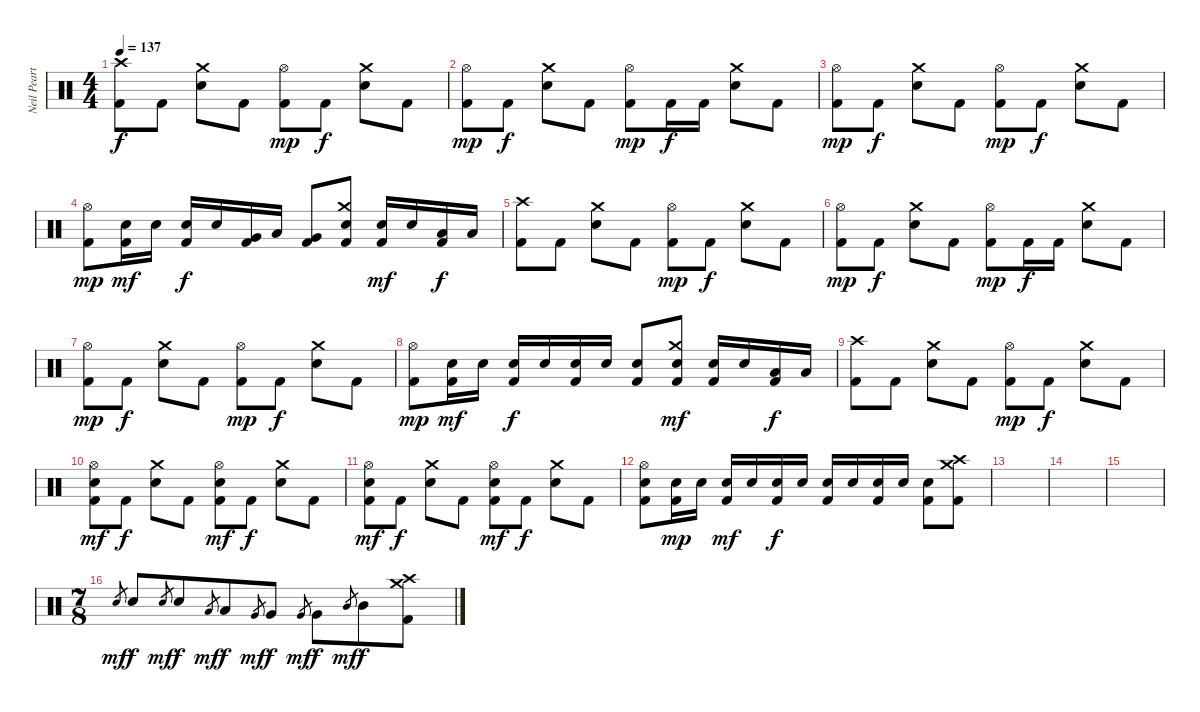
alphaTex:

\track ("Neil Peart, Percusión" "Neil Peart") {instrument percussion}
\staff {score}
\articulation defaults
\ts (4 4)
\tempo 137
\clef neutral
\ks c
("Crash high (hit)" "Kick (hit) 2").8{dy f} "Kick (hit) 2".8 ("Crash medium (hit)" "Electric Snare (hit)").8 "Kick (hit) 2".8 ("Hi-Hat (open)" "Kick (hit) 2").8{dy mp} "Kick (hit) 2".8{dy f} ("Crash medium (hit)" "Electric Snare (hit)").8 "Kick (hit) 2".8 |
("Hi-Hat (open)" "Kick (hit) 2").8{dy mp} "Kick (hit) 2".8{dy f} ("Crash medium (hit)" "Electric Snare (hit)").8 "Kick (hit) 2".8 ("Hi-Hat (open)" "Kick (hit) 2").8{dy mp} "Kick (hit) 2".16{dy f} "Kick (hit) 2".16 ("Crash medium (hit)" "Electric Snare (hit)").8 "Kick (hit) 2".8 |
("Hi-Hat (open)" "Kick (hit) 2").8{dy mp} "Kick (hit) 2".8{dy f} ("Crash medium (hit)" "Electric Snare (hit)").8 "Kick (hit) 2".8 ("Hi-Hat (open)" "Kick (hit) 2").8{dy mp} "Kick (hit) 2".8{dy f} ("Crash medium (hit)" "Electric Snare (hit)").8 "Kick (hit) 2".8 |
("Hi-Hat (open)" "Kick (hit) 2").8{dy mp} ("Electric Snare (hit)" "Kick (hit) 2").16{dy mf} "Electric Snare (hit)".16 ("Electric Snare (hit)" "Kick (hit) 2").16{dy f} "Electric Snare (hit)".16 ("Very Low Tom (hit)" "Kick (hit) 2").16 "Low Tom (hit)".16 ("Very Low Tom (hit)" "Kick (hit) 2").8 ("Crash medium (hit)" "Electric Snare (hit)" "Kick (hit) 2").8 ("Electric Snare (hit)" "Kick (hit) 2").16{dy mf} "Electric Snare (hit)".16 ("Low Tom (hit)" "Kick (hit) 2").16{dy f} "Low Tom (hit)".16 |
("Crash high (hit)" "Kick (hit) 2").8 "Kick (hit) 2".8 ("Crash medium (hit)" "Electric Snare (hit)").8 "Kick (hit) 2".8 ("Hi-Hat (open)" "Kick (hit) 2").8{dy mp} "Kick (hit) 2".8{dy f} ("Crash medium (hit)" "Electric Snare (hit)").8 "Kick (hit) 2".8 |
("Hi-Hat (open)" "Kick (hit) 2").8{dy mp} "Kick (hit) 2".8{dy f} ("Crash medium (hit)" "Electric Snare (hit)").8 "Kick (hit) 2".8 ("Hi-Hat (open)" "Kick (hit) 2").8{dy mp} "Kick (hit) 2".16{dy f} "Kick (hit) 2".16 ("Crash medium (hit)" "Electric Snare (hit)").8 "Kick (hit) 2".8 |
("Hi-Hat (open)" "Kick (hit) 2").8{dy mp} "Kick (hit) 2".8{dy f} ("Crash medium (hit)" "Electric Snare (hit)").8 "Kick (hit) 2".8 ("Hi-Hat (open)" "Kick (hit) 2").8{dy mp} "Kick (hit) 2".8{dy f} ("Crash medium (hit)" "Electric Snare (hit)").8 "Kick (hit) 2".8 |
("Hi-Hat (open)" "Kick (hit) 2").8{dy mp} ("Electric Snare (hit)" "Kick (hit) 2").16{dy mf} "Electric Snare (hit)".16 ("Electric Snare (hit)" "Kick (hit) 2").16{dy f} "Electric Snare (hit)".16 ("Electric Snare (hit)" "Kick (hit) 2").16 "Electric Snare (hit)".16 ("Electric Snare (hit)" "Kick (hit) 2").8 ("Crash medium (hit)" "Electric Snare (hit)" "Kick (hit) 2").8{dy mf} ("Electric Snare (hit)" "Kick (hit) 2").16 "Electric Snare (hit)".16 ("Low Tom (hit)" "Kick (hit) 2").16{dy f} "Low Tom (hit)".16 |
("Crash high (hit)" "Kick (hit) 2").8 "Kick (hit) 2".8 ("Crash medium (hit)" "Electric Snare (hit)").8 "Kick (hit) 2".8 ("Hi-Hat (open)" "Kick (hit) 2").8{dy mp} "Kick (hit) 2".8{dy f} ("Crash medium (hit)" "Electric Snare (hit)").8 "Kick (hit) 2".8 |
("Hi-Hat (open)" "Electric Snare (hit)" "Kick (hit) 2").8{dy mf} "Kick (hit) 2".8{dy f} ("Crash medium (hit)" "Electric Snare (hit)").8 "Kick (hit) 2".8 ("Hi-Hat (open)" "Electric Snare (hit)" "Kick (hit) 2").8{dy mf} "Kick (hit) 2".8{dy f} ("Crash medium (hit)" "Electric Snare (hit)").8 "Kick (hit) 2".8 |
("Hi-Hat (open)" "Electric Snare (hit)" "Kick (hit) 2").8{dy mf} "Kick (hit) 2".8{dy f} ("Crash medium (hit)" "Electric Snare (hit)").8 "Kick (hit) 2".8 ("Hi-Hat (open)" "Electric Snare (hit)" "Kick (hit) 2").8{dy mf} "Kick (hit) 2".8{dy f} ("Crash medium (hit)" "Electric Snare (hit)").8 "Kick (hit) 2".8 |
("Hi-Hat (open)" "Electric Snare (hit)" "Kick (hit) 2").8 ("Electric Snare (hit)" "Kick (hit) 2").16{dy mp} "Electric Snare (hit)".16 ("Electric Snare (hit)" "Kick (hit) 2").16{dy mf} "Electric Snare (hit)".16 ("Electric Snare (hit)" "Kick (hit) 2").16{dy f} "Electric Snare (hit)".16 ("Electric Snare (hit)" "Kick (hit) 2").16 "Electric Snare (hit)".16 ("Electric Snare (hit)" "Kick (hit) 2").16 "Electric Snare (hit)".16 ("Electric Snare (hit)" "Kick (hit) 2").8 ("Crash medium (hit)" "Crash high (hit)" "Kick (hit) 2").8 |
|
|
|
\ts (7 8)
"Electric Snare (hit)".8{gr dy mf} "Electric Snare (hit)".8{dy f} "Electric Snare (hit)".8{gr dy mf} "Electric Snare (hit)".8{dy f} "Low Tom (hit)".8{gr dy mf} "Low Tom (hit)".8{dy f} "Very Low Tom (hit)".8{gr dy mf} "Very Low Tom (hit)".8{dy f} "Very Low Tom (hit)".8{gr dy mf} "Very Low Tom (hit)".8{dy f} "Mid Tom (hit)".8{gr dy mf} "Mid Tom (hit)".8{dy f} ("Crash medium (hit)" "Crash high (hit)" "Kick (hit) 2").8
